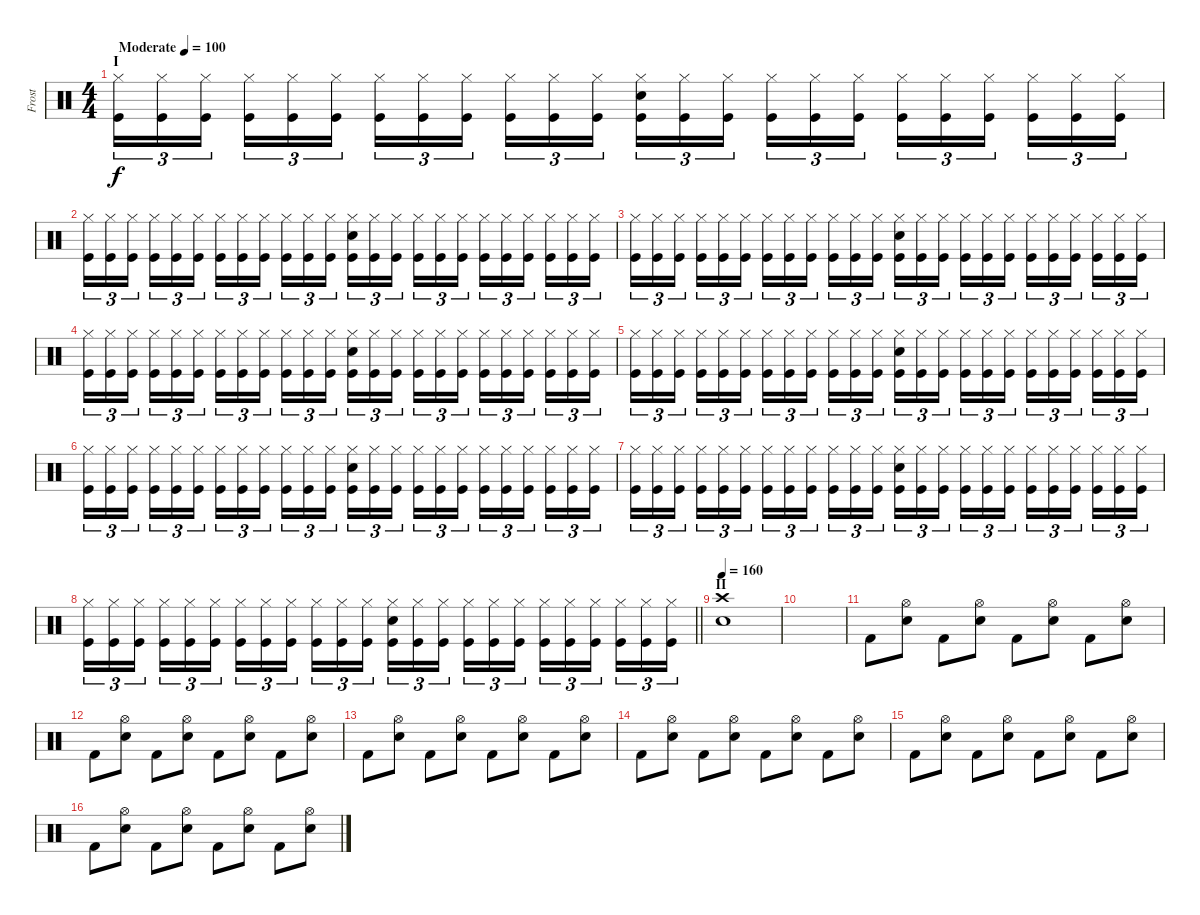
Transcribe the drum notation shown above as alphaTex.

\track ("Frost" "Frost") {instrument percussion}
\staff {score}
\articulation defaults
\ts (4 4)
\section ("" "I")
\tempo (100 "Moderate")
\clef neutral
\ks c
("Hi-Hat (closed)" "Kick (hit)").16{tu (3 2) dy f} ("Hi-Hat (closed)" "Kick (hit)").16{tu (3 2)} ("Hi-Hat (closed)" "Kick (hit)").16{tu (3 2) beam splitsecondary} ("Hi-Hat (closed)" "Kick (hit)").16{tu (3 2)} ("Hi-Hat (closed)" "Kick (hit)").16{tu (3 2)} ("Hi-Hat (closed)" "Kick (hit)").16{tu (3 2)} ("Hi-Hat (closed)" "Kick (hit)").16{tu (3 2)} ("Hi-Hat (closed)" "Kick (hit)").16{tu (3 2)} ("Hi-Hat (closed)" "Kick (hit)").16{tu (3 2) beam splitsecondary} ("Hi-Hat (closed)" "Kick (hit)").16{tu (3 2)} ("Hi-Hat (closed)" "Kick (hit)").16{tu (3 2)} ("Hi-Hat (closed)" "Kick (hit)").16{tu (3 2)} ("Hi-Hat (closed)" "Electric Snare (hit)" "Kick (hit)").16{tu (3 2)} ("Hi-Hat (closed)" "Kick (hit)").16{tu (3 2)} ("Hi-Hat (closed)" "Kick (hit)").16{tu (3 2) beam splitsecondary} ("Hi-Hat (closed)" "Kick (hit)").16{tu (3 2)} ("Hi-Hat (closed)" "Kick (hit)").16{tu (3 2)} ("Hi-Hat (closed)" "Kick (hit)").16{tu (3 2)} ("Hi-Hat (closed)" "Kick (hit)").16{tu (3 2)} ("Hi-Hat (closed)" "Kick (hit)").16{tu (3 2)} ("Hi-Hat (closed)" "Kick (hit)").16{tu (3 2) beam splitsecondary} ("Hi-Hat (closed)" "Kick (hit)").16{tu (3 2)} ("Hi-Hat (closed)" "Kick (hit)").16{tu (3 2)} ("Hi-Hat (closed)" "Kick (hit)").16{tu (3 2)} |
("Hi-Hat (closed)" "Kick (hit)").16{tu (3 2)} ("Hi-Hat (closed)" "Kick (hit)").16{tu (3 2)} ("Hi-Hat (closed)" "Kick (hit)").16{tu (3 2) beam splitsecondary} ("Hi-Hat (closed)" "Kick (hit)").16{tu (3 2)} ("Hi-Hat (closed)" "Kick (hit)").16{tu (3 2)} ("Hi-Hat (closed)" "Kick (hit)").16{tu (3 2)} ("Hi-Hat (closed)" "Kick (hit)").16{tu (3 2)} ("Hi-Hat (closed)" "Kick (hit)").16{tu (3 2)} ("Hi-Hat (closed)" "Kick (hit)").16{tu (3 2) beam splitsecondary} ("Hi-Hat (closed)" "Kick (hit)").16{tu (3 2)} ("Hi-Hat (closed)" "Kick (hit)").16{tu (3 2)} ("Hi-Hat (closed)" "Kick (hit)").16{tu (3 2)} ("Hi-Hat (closed)" "Snare (hit) 2" "Kick (hit)").16{tu (3 2)} ("Hi-Hat (closed)" "Kick (hit)").16{tu (3 2)} ("Hi-Hat (closed)" "Kick (hit)").16{tu (3 2) beam splitsecondary} ("Hi-Hat (closed)" "Kick (hit)").16{tu (3 2)} ("Hi-Hat (closed)" "Kick (hit)").16{tu (3 2)} ("Hi-Hat (closed)" "Kick (hit)").16{tu (3 2)} ("Hi-Hat (closed)" "Kick (hit)").16{tu (3 2)} ("Hi-Hat (closed)" "Kick (hit)").16{tu (3 2)} ("Hi-Hat (closed)" "Kick (hit)").16{tu (3 2) beam splitsecondary} ("Hi-Hat (closed)" "Kick (hit)").16{tu (3 2)} ("Hi-Hat (closed)" "Kick (hit)").16{tu (3 2)} ("Hi-Hat (closed)" "Kick (hit)").16{tu (3 2)} |
("Hi-Hat (closed)" "Kick (hit)").16{tu (3 2)} ("Hi-Hat (closed)" "Kick (hit)").16{tu (3 2)} ("Hi-Hat (closed)" "Kick (hit)").16{tu (3 2) beam splitsecondary} ("Hi-Hat (closed)" "Kick (hit)").16{tu (3 2)} ("Hi-Hat (closed)" "Kick (hit)").16{tu (3 2)} ("Hi-Hat (closed)" "Kick (hit)").16{tu (3 2)} ("Hi-Hat (closed)" "Kick (hit)").16{tu (3 2)} ("Hi-Hat (closed)" "Kick (hit)").16{tu (3 2)} ("Hi-Hat (closed)" "Kick (hit)").16{tu (3 2) beam splitsecondary} ("Hi-Hat (closed)" "Kick (hit)").16{tu (3 2)} ("Hi-Hat (closed)" "Kick (hit)").16{tu (3 2)} ("Hi-Hat (closed)" "Kick (hit)").16{tu (3 2)} ("Hi-Hat (closed)" "Electric Snare (hit)" "Kick (hit)").16{tu (3 2)} ("Hi-Hat (closed)" "Kick (hit)").16{tu (3 2)} ("Hi-Hat (closed)" "Kick (hit)").16{tu (3 2) beam splitsecondary} ("Hi-Hat (closed)" "Kick (hit)").16{tu (3 2)} ("Hi-Hat (closed)" "Kick (hit)").16{tu (3 2)} ("Hi-Hat (closed)" "Kick (hit)").16{tu (3 2)} ("Hi-Hat (closed)" "Kick (hit)").16{tu (3 2)} ("Hi-Hat (closed)" "Kick (hit)").16{tu (3 2)} ("Hi-Hat (closed)" "Kick (hit)").16{tu (3 2) beam splitsecondary} ("Hi-Hat (closed)" "Kick (hit)").16{tu (3 2)} ("Hi-Hat (closed)" "Kick (hit)").16{tu (3 2)} ("Hi-Hat (closed)" "Kick (hit)").16{tu (3 2)} |
("Hi-Hat (closed)" "Kick (hit)").16{tu (3 2)} ("Hi-Hat (closed)" "Kick (hit)").16{tu (3 2)} ("Hi-Hat (closed)" "Kick (hit)").16{tu (3 2) beam splitsecondary} ("Hi-Hat (closed)" "Kick (hit)").16{tu (3 2)} ("Hi-Hat (closed)" "Kick (hit)").16{tu (3 2)} ("Hi-Hat (closed)" "Kick (hit)").16{tu (3 2)} ("Hi-Hat (closed)" "Kick (hit)").16{tu (3 2)} ("Hi-Hat (closed)" "Kick (hit)").16{tu (3 2)} ("Hi-Hat (closed)" "Kick (hit)").16{tu (3 2) beam splitsecondary} ("Hi-Hat (closed)" "Kick (hit)").16{tu (3 2)} ("Hi-Hat (closed)" "Kick (hit)").16{tu (3 2)} ("Hi-Hat (closed)" "Kick (hit)").16{tu (3 2)} ("Hi-Hat (closed)" "Snare (hit) 2" "Kick (hit)").16{tu (3 2)} ("Hi-Hat (closed)" "Kick (hit)").16{tu (3 2)} ("Hi-Hat (closed)" "Kick (hit)").16{tu (3 2) beam splitsecondary} ("Hi-Hat (closed)" "Kick (hit)").16{tu (3 2)} ("Hi-Hat (closed)" "Kick (hit)").16{tu (3 2)} ("Hi-Hat (closed)" "Kick (hit)").16{tu (3 2)} ("Hi-Hat (closed)" "Kick (hit)").16{tu (3 2)} ("Hi-Hat (closed)" "Kick (hit)").16{tu (3 2)} ("Hi-Hat (closed)" "Kick (hit)").16{tu (3 2) beam splitsecondary} ("Hi-Hat (closed)" "Kick (hit)").16{tu (3 2)} ("Hi-Hat (closed)" "Kick (hit)").16{tu (3 2)} ("Hi-Hat (closed)" "Kick (hit)").16{tu (3 2)} |
("Hi-Hat (closed)" "Kick (hit)").16{tu (3 2)} ("Hi-Hat (closed)" "Kick (hit)").16{tu (3 2)} ("Hi-Hat (closed)" "Kick (hit)").16{tu (3 2) beam splitsecondary} ("Hi-Hat (closed)" "Kick (hit)").16{tu (3 2)} ("Hi-Hat (closed)" "Kick (hit)").16{tu (3 2)} ("Hi-Hat (closed)" "Kick (hit)").16{tu (3 2)} ("Hi-Hat (closed)" "Kick (hit)").16{tu (3 2)} ("Hi-Hat (closed)" "Kick (hit)").16{tu (3 2)} ("Hi-Hat (closed)" "Kick (hit)").16{tu (3 2) beam splitsecondary} ("Hi-Hat (closed)" "Kick (hit)").16{tu (3 2)} ("Hi-Hat (closed)" "Kick (hit)").16{tu (3 2)} ("Hi-Hat (closed)" "Kick (hit)").16{tu (3 2)} ("Hi-Hat (closed)" "Electric Snare (hit)" "Kick (hit)").16{tu (3 2)} ("Hi-Hat (closed)" "Kick (hit)").16{tu (3 2)} ("Hi-Hat (closed)" "Kick (hit)").16{tu (3 2) beam splitsecondary} ("Hi-Hat (closed)" "Kick (hit)").16{tu (3 2)} ("Hi-Hat (closed)" "Kick (hit)").16{tu (3 2)} ("Hi-Hat (closed)" "Kick (hit)").16{tu (3 2)} ("Hi-Hat (closed)" "Kick (hit)").16{tu (3 2)} ("Hi-Hat (closed)" "Kick (hit)").16{tu (3 2)} ("Hi-Hat (closed)" "Kick (hit)").16{tu (3 2) beam splitsecondary} ("Hi-Hat (closed)" "Kick (hit)").16{tu (3 2)} ("Hi-Hat (closed)" "Kick (hit)").16{tu (3 2)} ("Hi-Hat (closed)" "Kick (hit)").16{tu (3 2)} |
("Hi-Hat (closed)" "Kick (hit)").16{tu (3 2)} ("Hi-Hat (closed)" "Kick (hit)").16{tu (3 2)} ("Hi-Hat (closed)" "Kick (hit)").16{tu (3 2) beam splitsecondary} ("Hi-Hat (closed)" "Kick (hit)").16{tu (3 2)} ("Hi-Hat (closed)" "Kick (hit)").16{tu (3 2)} ("Hi-Hat (closed)" "Kick (hit)").16{tu (3 2)} ("Hi-Hat (closed)" "Kick (hit)").16{tu (3 2)} ("Hi-Hat (closed)" "Kick (hit)").16{tu (3 2)} ("Hi-Hat (closed)" "Kick (hit)").16{tu (3 2) beam splitsecondary} ("Hi-Hat (closed)" "Kick (hit)").16{tu (3 2)} ("Hi-Hat (closed)" "Kick (hit)").16{tu (3 2)} ("Hi-Hat (closed)" "Kick (hit)").16{tu (3 2)} ("Hi-Hat (closed)" "Snare (hit) 2" "Kick (hit)").16{tu (3 2)} ("Hi-Hat (closed)" "Kick (hit)").16{tu (3 2)} ("Hi-Hat (closed)" "Kick (hit)").16{tu (3 2) beam splitsecondary} ("Hi-Hat (closed)" "Kick (hit)").16{tu (3 2)} ("Hi-Hat (closed)" "Kick (hit)").16{tu (3 2)} ("Hi-Hat (closed)" "Kick (hit)").16{tu (3 2)} ("Hi-Hat (closed)" "Kick (hit)").16{tu (3 2)} ("Hi-Hat (closed)" "Kick (hit)").16{tu (3 2)} ("Hi-Hat (closed)" "Kick (hit)").16{tu (3 2) beam splitsecondary} ("Hi-Hat (closed)" "Kick (hit)").16{tu (3 2)} ("Hi-Hat (closed)" "Kick (hit)").16{tu (3 2)} ("Hi-Hat (closed)" "Kick (hit)").16{tu (3 2)} |
("Hi-Hat (closed)" "Kick (hit)").16{tu (3 2)} ("Hi-Hat (closed)" "Kick (hit)").16{tu (3 2)} ("Hi-Hat (closed)" "Kick (hit)").16{tu (3 2) beam splitsecondary} ("Hi-Hat (closed)" "Kick (hit)").16{tu (3 2)} ("Hi-Hat (closed)" "Kick (hit)").16{tu (3 2)} ("Hi-Hat (closed)" "Kick (hit)").16{tu (3 2)} ("Hi-Hat (closed)" "Kick (hit)").16{tu (3 2)} ("Hi-Hat (closed)" "Kick (hit)").16{tu (3 2)} ("Hi-Hat (closed)" "Kick (hit)").16{tu (3 2) beam splitsecondary} ("Hi-Hat (closed)" "Kick (hit)").16{tu (3 2)} ("Hi-Hat (closed)" "Kick (hit)").16{tu (3 2)} ("Hi-Hat (closed)" "Kick (hit)").16{tu (3 2)} ("Hi-Hat (closed)" "Electric Snare (hit)" "Kick (hit)").16{tu (3 2)} ("Hi-Hat (closed)" "Kick (hit)").16{tu (3 2)} ("Hi-Hat (closed)" "Kick (hit)").16{tu (3 2) beam splitsecondary} ("Hi-Hat (closed)" "Kick (hit)").16{tu (3 2)} ("Hi-Hat (closed)" "Kick (hit)").16{tu (3 2)} ("Hi-Hat (closed)" "Kick (hit)").16{tu (3 2)} ("Hi-Hat (closed)" "Kick (hit)").16{tu (3 2)} ("Hi-Hat (closed)" "Kick (hit)").16{tu (3 2)} ("Hi-Hat (closed)" "Kick (hit)").16{tu (3 2) beam splitsecondary} ("Hi-Hat (closed)" "Kick (hit)").16{tu (3 2)} ("Hi-Hat (closed)" "Kick (hit)").16{tu (3 2)} ("Hi-Hat (closed)" "Kick (hit)").16{tu (3 2)} |
\barLineRight lightlight
("Hi-Hat (closed)" "Kick (hit)").16{tu (3 2)} ("Hi-Hat (closed)" "Kick (hit)").16{tu (3 2)} ("Hi-Hat (closed)" "Kick (hit)").16{tu (3 2) beam splitsecondary} ("Hi-Hat (closed)" "Kick (hit)").16{tu (3 2)} ("Hi-Hat (closed)" "Kick (hit)").16{tu (3 2)} ("Hi-Hat (closed)" "Kick (hit)").16{tu (3 2)} ("Hi-Hat (closed)" "Kick (hit)").16{tu (3 2)} ("Hi-Hat (closed)" "Kick (hit)").16{tu (3 2)} ("Hi-Hat (closed)" "Kick (hit)").16{tu (3 2) beam splitsecondary} ("Hi-Hat (closed)" "Kick (hit)").16{tu (3 2)} ("Hi-Hat (closed)" "Kick (hit)").16{tu (3 2)} ("Hi-Hat (closed)" "Kick (hit)").16{tu (3 2)} ("Hi-Hat (closed)" "Snare (hit) 2" "Kick (hit)").16{tu (3 2)} ("Hi-Hat (closed)" "Kick (hit)").16{tu (3 2)} ("Hi-Hat (closed)" "Kick (hit)").16{tu (3 2) beam splitsecondary} ("Hi-Hat (closed)" "Kick (hit)").16{tu (3 2)} ("Hi-Hat (closed)" "Kick (hit)").16{tu (3 2)} ("Hi-Hat (closed)" "Kick (hit)").16{tu (3 2)} ("Hi-Hat (closed)" "Kick (hit)").16{tu (3 2)} ("Hi-Hat (closed)" "Kick (hit)").16{tu (3 2)} ("Hi-Hat (closed)" "Kick (hit)").16{tu (3 2) beam splitsecondary} ("Hi-Hat (closed)" "Kick (hit)").16{tu (3 2)} ("Hi-Hat (closed)" "Kick (hit)").16{tu (3 2)} ("Hi-Hat (closed)" "Kick (hit)").16{tu (3 2)} |
\section ("" "II")
\tempo 160
("Crash high (hit)" "Snare (hit) 2").1 |
|
"Kick (hit) 2".8 ("Hi-Hat (open)" "Snare (hit) 2").8 "Kick (hit) 2".8 ("Hi-Hat (open)" "Snare (hit) 2").8 "Kick (hit) 2".8 ("Hi-Hat (open)" "Snare (hit) 2").8 "Kick (hit) 2".8 ("Hi-Hat (open)" "Snare (hit) 2").8 |
"Kick (hit) 2".8 ("Hi-Hat (open)" "Snare (hit) 2").8 "Kick (hit) 2".8 ("Hi-Hat (open)" "Snare (hit) 2").8 "Kick (hit) 2".8 ("Hi-Hat (open)" "Snare (hit) 2").8 "Kick (hit) 2".8 ("Hi-Hat (open)" "Snare (hit) 2").8 |
"Kick (hit) 2".8 ("Hi-Hat (open)" "Snare (hit) 2").8 "Kick (hit) 2".8 ("Hi-Hat (open)" "Snare (hit) 2").8 "Kick (hit) 2".8 ("Hi-Hat (open)" "Snare (hit) 2").8 "Kick (hit) 2".8 ("Hi-Hat (open)" "Snare (hit) 2").8 |
"Kick (hit) 2".8 ("Hi-Hat (open)" "Snare (hit) 2").8 "Kick (hit) 2".8 ("Hi-Hat (open)" "Snare (hit) 2").8 "Kick (hit) 2".8 ("Hi-Hat (open)" "Snare (hit) 2").8 "Kick (hit) 2".8 ("Hi-Hat (open)" "Snare (hit) 2").8 |
"Kick (hit) 2".8 ("Hi-Hat (open)" "Snare (hit) 2").8 "Kick (hit) 2".8 ("Hi-Hat (open)" "Snare (hit) 2").8 "Kick (hit) 2".8 ("Hi-Hat (open)" "Snare (hit) 2").8 "Kick (hit) 2".8 ("Hi-Hat (open)" "Snare (hit) 2").8 |
"Kick (hit) 2".8 ("Hi-Hat (open)" "Snare (hit) 2").8 "Kick (hit) 2".8 ("Hi-Hat (open)" "Snare (hit) 2").8 "Kick (hit) 2".8 ("Hi-Hat (open)" "Snare (hit) 2").8 "Kick (hit) 2".8 ("Hi-Hat (open)" "Snare (hit) 2").8
